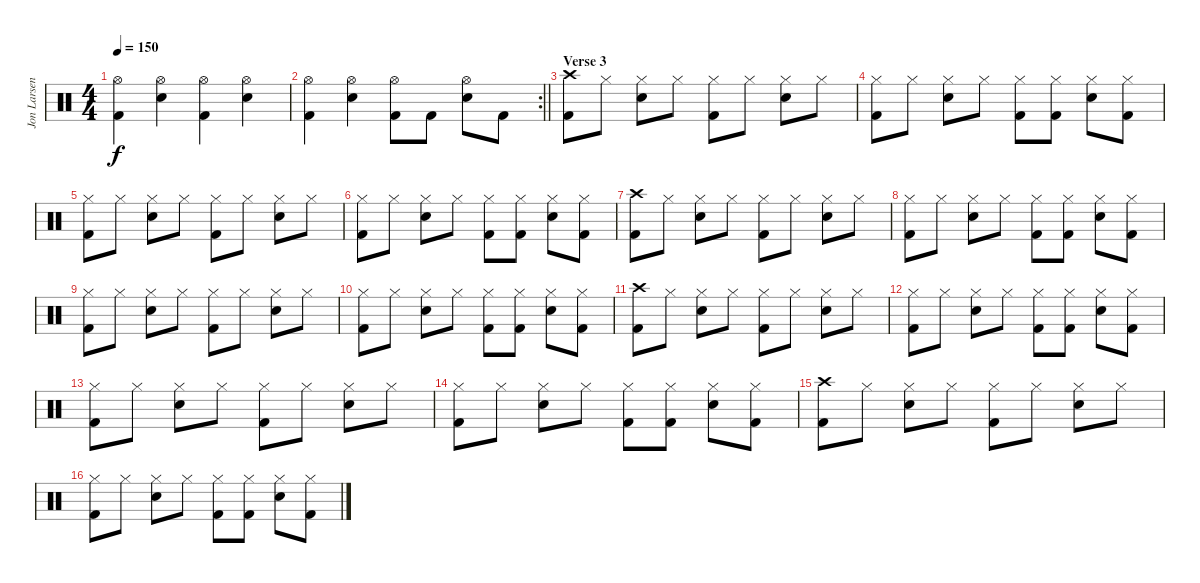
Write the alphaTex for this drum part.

\track ("Jon Larsen" "Jon Larsen") {instrument percussion}
\staff {score}
\articulation defaults
\ts (4 4)
\tempo 150
\clef neutral
\ks c
("Hi-Hat (open)" "Kick (hit) 2").4{dy f} ("Hi-Hat (open)" "Electric Snare (hit)").4 ("Hi-Hat (open)" "Kick (hit) 2").4 ("Hi-Hat (open)" "Electric Snare (hit)").4 |
\rc 2
\barLineRight lightlight
("Hi-Hat (open)" "Kick (hit) 2").4 ("Hi-Hat (open)" "Electric Snare (hit)").4 ("Hi-Hat (open)" "Kick (hit) 2").8 "Kick (hit) 2".8 ("Hi-Hat (open)" "Electric Snare (hit)").8 "Kick (hit) 2".8 |
\section ("" "Verse 3")
("Crash high (hit)" "Kick (hit) 2").8 "Hi-Hat (closed)".8 ("Hi-Hat (closed)" "Electric Snare (hit)").8 "Hi-Hat (closed)".8 ("Hi-Hat (closed)" "Kick (hit) 2").8 "Hi-Hat (closed)".8 ("Hi-Hat (closed)" "Electric Snare (hit)").8 "Hi-Hat (closed)".8 |
("Hi-Hat (closed)" "Kick (hit) 2").8 "Hi-Hat (closed)".8 ("Hi-Hat (closed)" "Electric Snare (hit)").8 "Hi-Hat (closed)".8 ("Hi-Hat (closed)" "Kick (hit) 2").8 ("Hi-Hat (closed)" "Kick (hit) 2").8 ("Hi-Hat (closed)" "Electric Snare (hit)").8 ("Hi-Hat (closed)" "Kick (hit) 2").8 |
("Hi-Hat (closed)" "Kick (hit) 2").8 "Hi-Hat (closed)".8 ("Hi-Hat (closed)" "Electric Snare (hit)").8 "Hi-Hat (closed)".8 ("Hi-Hat (closed)" "Kick (hit) 2").8 "Hi-Hat (closed)".8 ("Hi-Hat (closed)" "Electric Snare (hit)").8 "Hi-Hat (closed)".8 |
("Hi-Hat (closed)" "Kick (hit) 2").8 "Hi-Hat (closed)".8 ("Hi-Hat (closed)" "Electric Snare (hit)").8 "Hi-Hat (closed)".8 ("Hi-Hat (closed)" "Kick (hit) 2").8 ("Hi-Hat (closed)" "Kick (hit) 2").8 ("Hi-Hat (closed)" "Electric Snare (hit)").8 ("Hi-Hat (closed)" "Kick (hit) 2").8 |
("Crash high (hit)" "Kick (hit) 2").8 "Hi-Hat (closed)".8 ("Hi-Hat (closed)" "Electric Snare (hit)").8 "Hi-Hat (closed)".8 ("Hi-Hat (closed)" "Kick (hit) 2").8 "Hi-Hat (closed)".8 ("Hi-Hat (closed)" "Electric Snare (hit)").8 "Hi-Hat (closed)".8 |
("Hi-Hat (closed)" "Kick (hit) 2").8 "Hi-Hat (closed)".8 ("Hi-Hat (closed)" "Electric Snare (hit)").8 "Hi-Hat (closed)".8 ("Hi-Hat (closed)" "Kick (hit) 2").8 ("Hi-Hat (closed)" "Kick (hit) 2").8 ("Hi-Hat (closed)" "Electric Snare (hit)").8 ("Hi-Hat (closed)" "Kick (hit) 2").8 |
("Hi-Hat (closed)" "Kick (hit) 2").8 "Hi-Hat (closed)".8 ("Hi-Hat (closed)" "Electric Snare (hit)").8 "Hi-Hat (closed)".8 ("Hi-Hat (closed)" "Kick (hit) 2").8 "Hi-Hat (closed)".8 ("Hi-Hat (closed)" "Electric Snare (hit)").8 "Hi-Hat (closed)".8 |
("Hi-Hat (closed)" "Kick (hit) 2").8 "Hi-Hat (closed)".8 ("Hi-Hat (closed)" "Electric Snare (hit)").8 "Hi-Hat (closed)".8 ("Hi-Hat (closed)" "Kick (hit) 2").8 ("Hi-Hat (closed)" "Kick (hit) 2").8 ("Hi-Hat (closed)" "Electric Snare (hit)").8 ("Hi-Hat (closed)" "Kick (hit) 2").8 |
("Crash high (hit)" "Kick (hit) 2").8 "Hi-Hat (closed)".8 ("Hi-Hat (closed)" "Electric Snare (hit)").8 "Hi-Hat (closed)".8 ("Hi-Hat (closed)" "Kick (hit) 2").8 "Hi-Hat (closed)".8 ("Hi-Hat (closed)" "Electric Snare (hit)").8 "Hi-Hat (closed)".8 |
("Hi-Hat (closed)" "Kick (hit) 2").8 "Hi-Hat (closed)".8 ("Hi-Hat (closed)" "Electric Snare (hit)").8 "Hi-Hat (closed)".8 ("Hi-Hat (closed)" "Kick (hit) 2").8 ("Hi-Hat (closed)" "Kick (hit) 2").8 ("Hi-Hat (closed)" "Electric Snare (hit)").8 ("Hi-Hat (closed)" "Kick (hit) 2").8 |
("Hi-Hat (closed)" "Kick (hit) 2").8 "Hi-Hat (closed)".8 ("Hi-Hat (closed)" "Electric Snare (hit)").8 "Hi-Hat (closed)".8 ("Hi-Hat (closed)" "Kick (hit) 2").8 "Hi-Hat (closed)".8 ("Hi-Hat (closed)" "Electric Snare (hit)").8 "Hi-Hat (closed)".8 |
("Hi-Hat (closed)" "Kick (hit) 2").8 "Hi-Hat (closed)".8 ("Hi-Hat (closed)" "Electric Snare (hit)").8 "Hi-Hat (closed)".8 ("Hi-Hat (closed)" "Kick (hit) 2").8 ("Hi-Hat (closed)" "Kick (hit) 2").8 ("Hi-Hat (closed)" "Electric Snare (hit)").8 ("Hi-Hat (closed)" "Kick (hit) 2").8 |
("Crash high (hit)" "Kick (hit) 2").8 "Hi-Hat (closed)".8 ("Hi-Hat (closed)" "Electric Snare (hit)").8 "Hi-Hat (closed)".8 ("Hi-Hat (closed)" "Kick (hit) 2").8 "Hi-Hat (closed)".8 ("Hi-Hat (closed)" "Electric Snare (hit)").8 "Hi-Hat (closed)".8 |
("Hi-Hat (closed)" "Kick (hit) 2").8 "Hi-Hat (closed)".8 ("Hi-Hat (closed)" "Electric Snare (hit)").8 "Hi-Hat (closed)".8 ("Hi-Hat (closed)" "Kick (hit) 2").8 ("Hi-Hat (closed)" "Kick (hit) 2").8 ("Hi-Hat (closed)" "Electric Snare (hit)").8 ("Hi-Hat (closed)" "Kick (hit) 2").8
